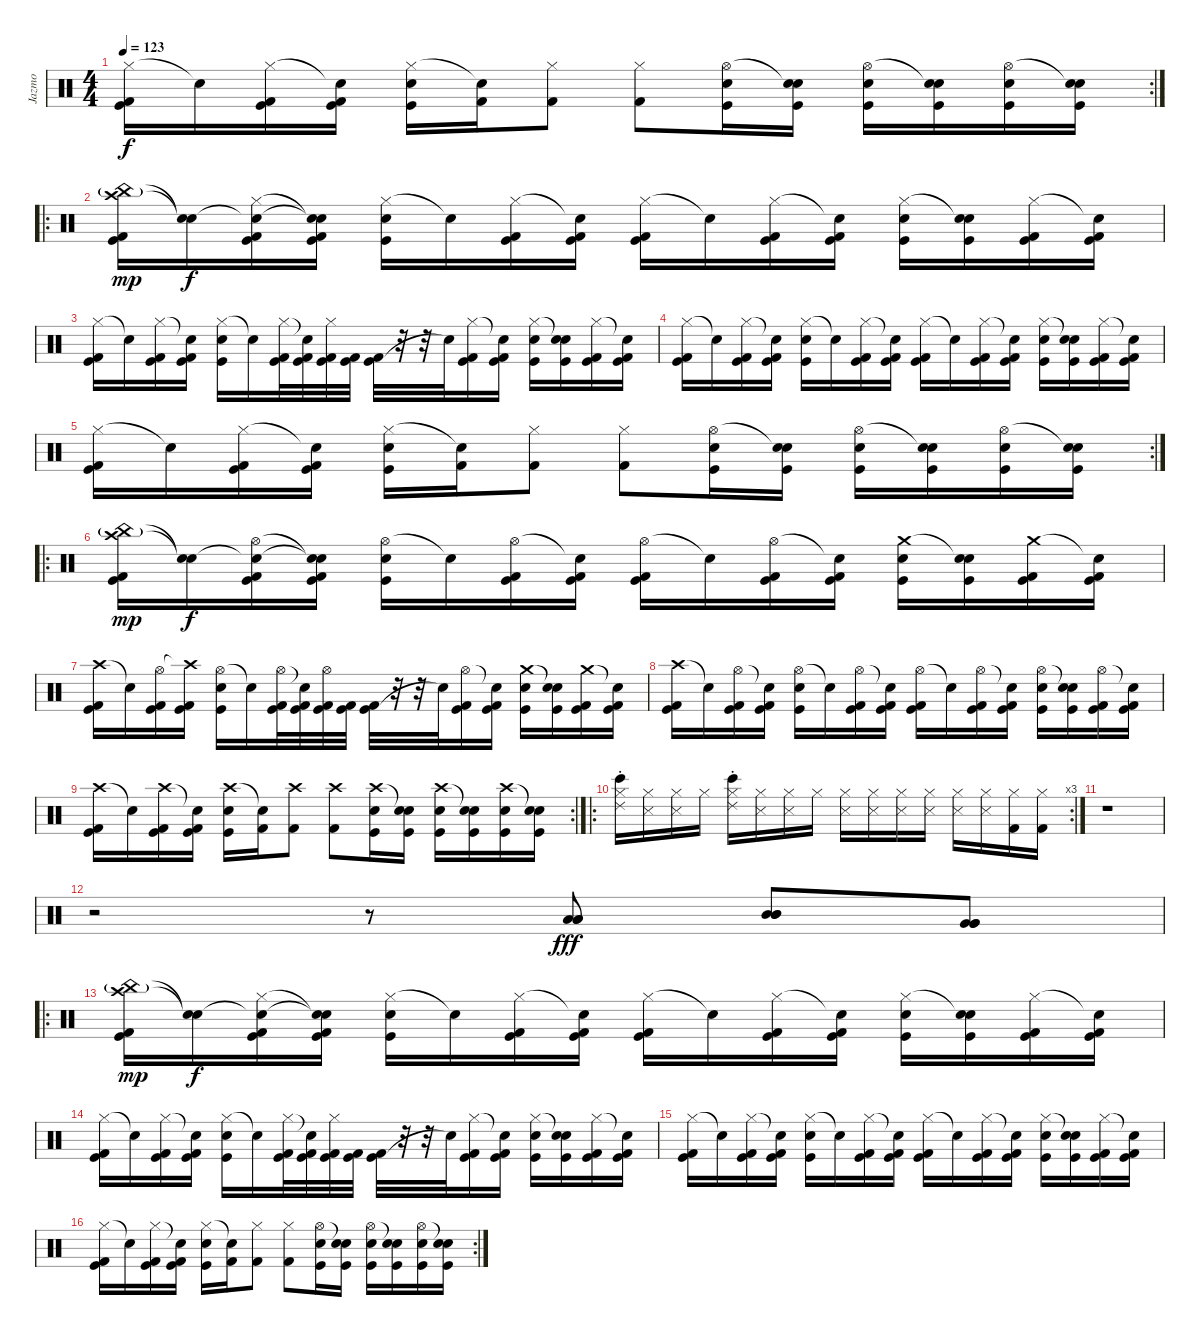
\track ("Jazmo" "Jazmo") {instrument percussion}
\staff {score}
\articulation defaults
\rc 2
\ts (4 4)
\tempo 123
\clef neutral
\ks c
("Hi-Hat (closed)" "Kick (hit)" "Kick (hit) 2").16{dy f} "Snare (hit)"{t}.16 ("Hi-Hat (closed)" "Kick (hit)" "Kick (hit) 2").16 ("Snare (hit)"{t} "Kick (hit)" "Kick (hit) 2").16 ("Hi-Hat (closed)" "Kick (hit)" "Electric Snare (hit)").16 ("Snare (hit)"{t} "Kick (hit) 2").16 ("Hi-Hat (closed)" "Kick (hit) 2").8 ("Hi-Hat (closed)" "Kick (hit) 2").8 ("Hi-Hat (open)" "Kick (hit)" "Electric Snare (hit)").16 ("Snare (hit)"{t} "Kick (hit)" "Electric Snare (hit)").16 ("Hi-Hat (open)" "Kick (hit)" "Electric Snare (hit)").16 ("Snare (hit)"{t} "Kick (hit)" "Electric Snare (hit)").16 ("Hi-Hat (open)" "Kick (hit)" "Electric Snare (hit)").16 ("Snare (hit)"{t} "Kick (hit)" "Electric Snare (hit)").16 |
\ro
("Crash high (hit)" "China (hit)"{g} "Kick (hit)" "Kick (hit) 2").16{dy mp} ("Snare (hit)"{t} "Snare (hit)"{t}).16{dy f} ("Hi-Hat (closed)" "Snare (hit)"{t} "Kick (hit)" "Kick (hit) 2").16 ("Snare (hit)"{t} "Snare (hit)"{t} "Kick (hit)" "Kick (hit) 2").16 ("Hi-Hat (closed)" "Kick (hit)" "Electric Snare (hit)").16 "Snare (hit)"{t}.16 ("Hi-Hat (closed)" "Kick (hit)" "Kick (hit) 2").16 ("Snare (hit)"{t} "Kick (hit)" "Kick (hit) 2").16 ("Hi-Hat (closed)" "Kick (hit)" "Kick (hit) 2").16 "Snare (hit)"{t}.16 ("Hi-Hat (closed)" "Kick (hit)" "Kick (hit) 2").16 ("Snare (hit)"{t} "Kick (hit)" "Kick (hit) 2").16 ("Hi-Hat (closed)" "Kick (hit)" "Electric Snare (hit)").16 ("Snare (hit)"{t} "Kick (hit)" "Electric Snare (hit)").16 ("Hi-Hat (closed)" "Kick (hit)" "Kick (hit) 2").16 ("Snare (hit)"{t} "Kick (hit)" "Kick (hit) 2").16 |
("Hi-Hat (closed)" "Kick (hit)" "Kick (hit) 2").16 "Snare (hit)"{t}.16 ("Hi-Hat (closed)" "Kick (hit)" "Kick (hit) 2").16 ("Snare (hit)"{t} "Kick (hit)" "Kick (hit) 2").16 ("Hi-Hat (closed)" "Kick (hit)" "Electric Snare (hit)").16 "Snare (hit)"{t}.16 ("Hi-Hat (closed)" "Kick (hit)" "Kick (hit) 2").32 ("Snare (hit)"{t} "Kick (hit)" "Kick (hit) 2").32 ("Hi-Hat (closed)" "Kick (hit)" "Kick (hit) 2").32 ("Kick (hit)" "Kick (hit) 2").32 ("Kick (hit)" "Kick (hit) 2").32 r.32 r.32 "Snare (hit)"{t}.32 ("Hi-Hat (closed)" "Kick (hit)" "Kick (hit) 2").16 ("Snare (hit)"{t} "Kick (hit)" "Kick (hit) 2").16 ("Hi-Hat (closed)" "Kick (hit)" "Electric Snare (hit)").16 ("Snare (hit)"{t} "Kick (hit)" "Electric Snare (hit)").16 ("Hi-Hat (closed)" "Kick (hit)" "Kick (hit) 2").16 ("Snare (hit)"{t} "Kick (hit)" "Kick (hit) 2").16 |
("Hi-Hat (closed)" "Kick (hit)" "Kick (hit) 2").16 "Snare (hit)"{t}.16 ("Hi-Hat (closed)" "Kick (hit)" "Kick (hit) 2").16 ("Snare (hit)"{t} "Kick (hit)" "Kick (hit) 2").16 ("Hi-Hat (closed)" "Kick (hit)" "Electric Snare (hit)").16 "Snare (hit)"{t}.16 ("Hi-Hat (closed)" "Kick (hit)" "Kick (hit) 2").16 ("Snare (hit)"{t} "Kick (hit)" "Kick (hit) 2").16 ("Hi-Hat (closed)" "Kick (hit)" "Kick (hit) 2").16 "Snare (hit)"{t}.16 ("Hi-Hat (closed)" "Kick (hit)" "Kick (hit) 2").16 ("Snare (hit)"{t} "Kick (hit)" "Kick (hit) 2").16 ("Hi-Hat (closed)" "Kick (hit)" "Electric Snare (hit)").16 ("Snare (hit)"{t} "Kick (hit)" "Electric Snare (hit)").16 ("Hi-Hat (closed)" "Kick (hit)" "Kick (hit) 2").16 ("Snare (hit)"{t} "Kick (hit)" "Kick (hit) 2").16 |
\rc 2
("Hi-Hat (closed)" "Kick (hit)" "Kick (hit) 2").16 "Snare (hit)"{t}.16 ("Hi-Hat (closed)" "Kick (hit)" "Kick (hit) 2").16 ("Snare (hit)"{t} "Kick (hit)" "Kick (hit) 2").16 ("Hi-Hat (closed)" "Kick (hit)" "Electric Snare (hit)").16 ("Snare (hit)"{t} "Kick (hit) 2").16 ("Hi-Hat (closed)" "Kick (hit) 2").8 ("Hi-Hat (closed)" "Kick (hit) 2").8 ("Hi-Hat (open)" "Kick (hit)" "Electric Snare (hit)").16 ("Snare (hit)"{t} "Kick (hit)" "Electric Snare (hit)").16 ("Hi-Hat (open)" "Kick (hit)" "Electric Snare (hit)").16 ("Snare (hit)"{t} "Kick (hit)" "Electric Snare (hit)").16 ("Hi-Hat (open)" "Kick (hit)" "Electric Snare (hit)").16 ("Snare (hit)"{t} "Kick (hit)" "Electric Snare (hit)").16 |
\ro
("Crash high (hit)" "China (hit)"{g} "Kick (hit)" "Kick (hit) 2").16{dy mp} ("Snare (hit)"{t} "Snare (hit)"{t}).16{dy f} ("Hi-Hat (open)" "Snare (hit)"{t} "Kick (hit)" "Kick (hit) 2").16 ("Snare (hit)"{t} "Snare (hit)"{t} "Kick (hit)" "Kick (hit) 2").16 ("Hi-Hat (open)" "Kick (hit)" "Electric Snare (hit)").16 "Snare (hit)"{t}.16 ("Hi-Hat (open)" "Kick (hit)" "Kick (hit) 2").16 ("Snare (hit)"{t} "Kick (hit)" "Kick (hit) 2").16 ("Hi-Hat (open)" "Kick (hit)" "Kick (hit) 2").16 "Snare (hit)"{t}.16 ("Hi-Hat (open)" "Kick (hit)" "Kick (hit) 2").16 ("Snare (hit)"{t} "Kick (hit)" "Kick (hit) 2").16 ("Crash medium (hit)" "Kick (hit)" "Electric Snare (hit)").16 ("Snare (hit)"{t} "Kick (hit)" "Electric Snare (hit)").16 ("Crash medium (hit)" "Kick (hit)" "Kick (hit) 2").16 ("Snare (hit)"{t} "Kick (hit)" "Kick (hit) 2").16 |
("Crash high (hit)" "Kick (hit)" "Kick (hit) 2").16 "Snare (hit)"{t}.16 ("Hi-Hat (open)" "Kick (hit)" "Kick (hit) 2").16 ("Crash high (hit)"{t} "Kick (hit)" "Kick (hit) 2").16 ("Hi-Hat (open)" "Kick (hit)" "Electric Snare (hit)").16 "Snare (hit)"{t}.16 ("Hi-Hat (open)" "Kick (hit)" "Kick (hit) 2").32 ("Snare (hit)"{t} "Kick (hit)" "Kick (hit) 2").32 ("Hi-Hat (open)" "Kick (hit)" "Kick (hit) 2").32 ("Kick (hit)" "Kick (hit) 2").32 ("Kick (hit)" "Kick (hit) 2").32 r.32 r.32 "Snare (hit)"{t}.32 ("Hi-Hat (open)" "Kick (hit)" "Kick (hit) 2").16 ("Snare (hit)"{t} "Kick (hit)" "Kick (hit) 2").16 ("Crash medium (hit)" "Kick (hit)" "Electric Snare (hit)").16 ("Snare (hit)"{t} "Kick (hit)" "Electric Snare (hit)").16 ("Crash medium (hit)" "Kick (hit)" "Kick (hit) 2").16 ("Snare (hit)"{t} "Kick (hit)" "Kick (hit) 2").16 |
("Crash high (hit)" "Kick (hit)" "Kick (hit) 2").16 "Snare (hit)"{t}.16 ("Hi-Hat (open)" "Kick (hit)" "Kick (hit) 2").16 ("Snare (hit)"{t} "Kick (hit)" "Kick (hit) 2").16 ("Hi-Hat (open)" "Kick (hit)" "Electric Snare (hit)").16 "Snare (hit)"{t}.16 ("Hi-Hat (open)" "Kick (hit)" "Kick (hit) 2").16 ("Snare (hit)"{t} "Kick (hit)" "Kick (hit) 2").16 ("Hi-Hat (open)" "Kick (hit)" "Kick (hit) 2").16 "Snare (hit)"{t}.16 ("Hi-Hat (open)" "Kick (hit)" "Kick (hit) 2").16 ("Snare (hit)"{t} "Kick (hit)" "Kick (hit) 2").16 ("Hi-Hat (open)" "Kick (hit)" "Electric Snare (hit)").16 ("Snare (hit)"{t} "Kick (hit)" "Electric Snare (hit)").16 ("Hi-Hat (open)" "Kick (hit)" "Kick (hit) 2").16 ("Snare (hit)"{t} "Kick (hit)" "Kick (hit) 2").16 |
\rc 2
("Crash high (hit)" "Kick (hit)" "Kick (hit) 2").16 "Snare (hit)"{t}.16 ("Crash high (hit)" "Kick (hit)" "Kick (hit) 2").16 ("Snare (hit)"{t} "Kick (hit)" "Kick (hit) 2").16 ("Crash high (hit)" "Kick (hit)" "Electric Snare (hit)").16 ("Snare (hit)"{t} "Kick (hit) 2").16 ("Crash high (hit)" "Kick (hit) 2").8 ("Crash high (hit)" "Kick (hit) 2").8 ("Crash high (hit)" "Kick (hit)" "Electric Snare (hit)").16 ("Snare (hit)"{t} "Kick (hit)" "Electric Snare (hit)").16 ("Crash high (hit)" "Kick (hit)" "Electric Snare (hit)").16 ("Snare (hit)"{t} "Kick (hit)" "Electric Snare (hit)").16 ("Crash high (hit)" "Kick (hit)" "Electric Snare (hit)").16 ("Snare (hit)"{t} "Kick (hit)" "Electric Snare (hit)").16 |
\ro
\rc 3
("Hi-Hat (closed)" "Bongo High (hit)" "Ride (choke) 2").16 ("Hi-Hat (closed)" "Metronome (hit)").16 ("Hi-Hat (closed)" "Metronome (hit)").16 "Hi-Hat (closed)".16 ("Hi-Hat (closed)" "Bongo High (hit)" "Ride (choke) 2").16 ("Hi-Hat (closed)" "Metronome (hit)").16 ("Hi-Hat (closed)" "Metronome (hit)").16 "Hi-Hat (closed)".16 ("Hi-Hat (closed)" "Metronome (hit)").16 ("Hi-Hat (closed)" "Metronome (hit)").16 ("Hi-Hat (closed)" "Metronome (hit)").16 ("Hi-Hat (closed)" "Metronome (hit)").16 ("Hi-Hat (closed)" "Metronome (hit)").16 ("Hi-Hat (closed)" "Metronome (hit)").16 ("Kick (hit) 2" "Hi-Hat (closed)").16 ("Kick (hit) 2" "Hi-Hat (closed)").16 |
r.1 |
r.2 r.8 ("Low Tom (hit)" "Low Tom (hit)" "Low Tom (hit)").8{dy fff} ("Mid Tom (hit)" "Mid Tom (hit)" "Mid Tom (hit)").8 ("Very Low Tom (hit)" "Very Low Tom (hit)" "Very Low Tom (hit)").8 |
\ro
("Crash high (hit)" "China (hit)"{g} "Kick (hit)" "Kick (hit) 2").16{dy mp} ("Snare (hit)"{t} "Snare (hit)"{t}).16{dy f} ("Hi-Hat (closed)" "Snare (hit)"{t} "Kick (hit)" "Kick (hit) 2").16 ("Snare (hit)"{t} "Snare (hit)"{t} "Kick (hit)" "Kick (hit) 2").16 ("Hi-Hat (closed)" "Kick (hit)" "Electric Snare (hit)").16 "Snare (hit)"{t}.16 ("Hi-Hat (closed)" "Kick (hit)" "Kick (hit) 2").16 ("Snare (hit)"{t} "Kick (hit)" "Kick (hit) 2").16 ("Hi-Hat (closed)" "Kick (hit)" "Kick (hit) 2").16 "Snare (hit)"{t}.16 ("Hi-Hat (closed)" "Kick (hit)" "Kick (hit) 2").16 ("Snare (hit)"{t} "Kick (hit)" "Kick (hit) 2").16 ("Hi-Hat (closed)" "Kick (hit)" "Electric Snare (hit)").16 ("Snare (hit)"{t} "Kick (hit)" "Electric Snare (hit)").16 ("Hi-Hat (closed)" "Kick (hit)" "Kick (hit) 2").16 ("Snare (hit)"{t} "Kick (hit)" "Kick (hit) 2").16 |
("Hi-Hat (closed)" "Kick (hit)" "Kick (hit) 2").16 "Snare (hit)"{t}.16 ("Hi-Hat (closed)" "Kick (hit)" "Kick (hit) 2").16 ("Snare (hit)"{t} "Kick (hit)" "Kick (hit) 2").16 ("Hi-Hat (closed)" "Kick (hit)" "Electric Snare (hit)").16 "Snare (hit)"{t}.16 ("Hi-Hat (closed)" "Kick (hit)" "Kick (hit) 2").32 ("Snare (hit)"{t} "Kick (hit)" "Kick (hit) 2").32 ("Hi-Hat (closed)" "Kick (hit)" "Kick (hit) 2").32 ("Kick (hit)" "Kick (hit) 2").32 ("Kick (hit)" "Kick (hit) 2").32 r.32 r.32 "Snare (hit)"{t}.32 ("Hi-Hat (closed)" "Kick (hit)" "Kick (hit) 2").16 ("Snare (hit)"{t} "Kick (hit)" "Kick (hit) 2").16 ("Hi-Hat (closed)" "Kick (hit)" "Electric Snare (hit)").16 ("Snare (hit)"{t} "Kick (hit)" "Electric Snare (hit)").16 ("Hi-Hat (closed)" "Kick (hit)" "Kick (hit) 2").16 ("Snare (hit)"{t} "Kick (hit)" "Kick (hit) 2").16 |
("Hi-Hat (closed)" "Kick (hit)" "Kick (hit) 2").16 "Snare (hit)"{t}.16 ("Hi-Hat (closed)" "Kick (hit)" "Kick (hit) 2").16 ("Snare (hit)"{t} "Kick (hit)" "Kick (hit) 2").16 ("Hi-Hat (closed)" "Kick (hit)" "Electric Snare (hit)").16 "Snare (hit)"{t}.16 ("Hi-Hat (closed)" "Kick (hit)" "Kick (hit) 2").16 ("Snare (hit)"{t} "Kick (hit)" "Kick (hit) 2").16 ("Hi-Hat (closed)" "Kick (hit)" "Kick (hit) 2").16 "Snare (hit)"{t}.16 ("Hi-Hat (closed)" "Kick (hit)" "Kick (hit) 2").16 ("Snare (hit)"{t} "Kick (hit)" "Kick (hit) 2").16 ("Hi-Hat (closed)" "Kick (hit)" "Electric Snare (hit)").16 ("Snare (hit)"{t} "Kick (hit)" "Electric Snare (hit)").16 ("Hi-Hat (closed)" "Kick (hit)" "Kick (hit) 2").16 ("Snare (hit)"{t} "Kick (hit)" "Kick (hit) 2").16 |
\rc 2
("Hi-Hat (closed)" "Kick (hit)" "Kick (hit) 2").16 "Snare (hit)"{t}.16 ("Hi-Hat (closed)" "Kick (hit)" "Kick (hit) 2").16 ("Snare (hit)"{t} "Kick (hit)" "Kick (hit) 2").16 ("Hi-Hat (closed)" "Kick (hit)" "Electric Snare (hit)").16 ("Snare (hit)"{t} "Kick (hit) 2").16 ("Hi-Hat (closed)" "Kick (hit) 2").8 ("Hi-Hat (closed)" "Kick (hit) 2").8 ("Hi-Hat (open)" "Kick (hit)" "Electric Snare (hit)").16 ("Snare (hit)"{t} "Kick (hit)" "Electric Snare (hit)").16 ("Hi-Hat (open)" "Kick (hit)" "Electric Snare (hit)").16 ("Snare (hit)"{t} "Kick (hit)" "Electric Snare (hit)").16 ("Hi-Hat (open)" "Kick (hit)" "Electric Snare (hit)").16 ("Snare (hit)"{t} "Kick (hit)" "Electric Snare (hit)").16
